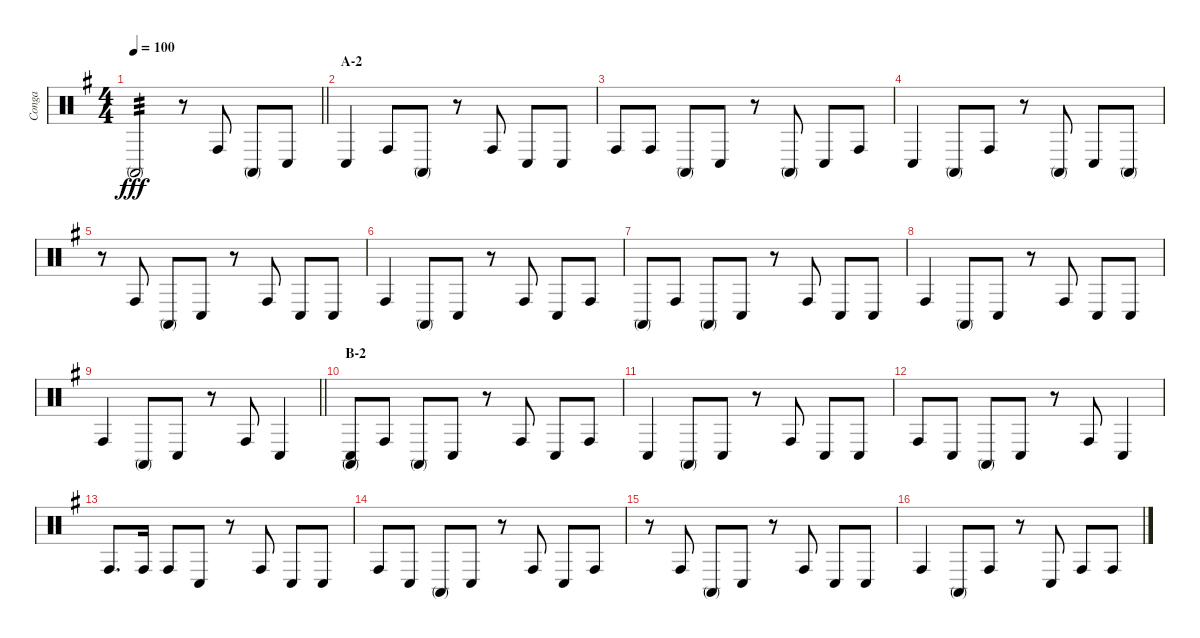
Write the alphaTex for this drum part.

\track ("Conga" "Conga") {instrument percussion}
\staff {score}
\articulation defaults
\ts (4 4)
\tempo 100
\clef neutral
\barLineRight lightlight
\ks g "Conga high (mute)".2{tp 3 dy fff}
r.8 "Conga high (hit)".8 "Conga high (mute)".8 "Conga low (hit)".8 |
\section ("" "A-2")
"Conga low (hit)".4 "Conga high (hit)".8 "Conga high (mute)".8 r.8 "Conga high (hit)".8 "Conga low (hit)".8 "Conga low (hit)".8 |
"Conga high (hit)".8 "Conga high (hit)".8 "Conga high (mute)".8 "Conga low (hit)".8 r.8 "Conga high (mute)".8 "Conga low (hit)".8 "Conga high (hit)".8 |
"Conga low (hit)".4 "Conga high (mute)".8 "Conga high (hit)".8 r.8 "Conga high (mute)".8 "Conga low (hit)".8 "Conga high (mute)".8 |
r.8 "Conga high (hit)".8 "Conga high (mute)".8 "Conga low (hit)".8 r.8 "Conga high (hit)".8 "Conga low (hit)".8 "Conga low (hit)".8 |
"Conga high (hit)".4 "Conga high (mute)".8 "Conga low (hit)".8 r.8 "Conga high (hit)".8 "Conga low (hit)".8 "Conga high (hit)".8 |
"Conga high (mute)".8 "Conga high (hit)".8 "Conga high (mute)".8 "Conga low (hit)".8 r.8 "Conga high (hit)".8 "Conga low (hit)".8 "Conga low (hit)".8 |
"Conga high (hit)".4 "Conga high (mute)".8 "Conga low (hit)".8 r.8 "Conga high (hit)".8 "Conga low (hit)".8 "Conga low (hit)".8 |
\barLineRight lightlight "Conga high (hit)".4 "Conga high (mute)".8 "Conga low (hit)".8
r.8 "Conga high (hit)".8 "Conga low (hit)".4 |
\section ("" "B-2")
("Conga high (mute)" "Conga low (hit)").8 "Conga high (hit)".8 "Conga high (mute)".8 "Conga low (hit)".8 r.8 "Conga high (hit)".8 "Conga low (hit)".8 "Conga high (hit)".8 |
"Conga low (hit)".4 "Conga high (mute)".8 "Conga low (hit)".8 r.8 "Conga high (hit)".8 "Conga low (hit)".8 "Conga low (hit)".8 |
"Conga high (hit)".8 "Conga low (hit)".8 "Conga high (mute)".8 "Conga low (hit)".8 r.8 "Conga high (hit)".8 "Conga low (hit)".4 |
"Conga high (hit)".8{d} "Conga high (hit)".16 "Conga high (hit)".8 "Conga low (hit)".8 r.8 "Conga high (hit)".8 "Conga low (hit)".8 "Conga low (hit)".8 |
"Conga high (hit)".8 "Conga low (hit)".8 "Conga high (mute)".8 "Conga low (hit)".8 r.8 "Conga high (hit)".8 "Conga low (hit)".8 "Conga high (hit)".8 |
r.8 "Conga high (hit)".8 "Conga high (mute)".8 "Conga low (hit)".8 r.8 "Conga high (hit)".8 "Conga low (hit)".8 "Conga low (hit)".8 |
"Conga high (hit)".4 "Conga high (mute)".8 "Conga high (hit)".8 r.8 "Conga low (hit)".8 "Conga high (hit)".8 "Conga high (hit)".8
